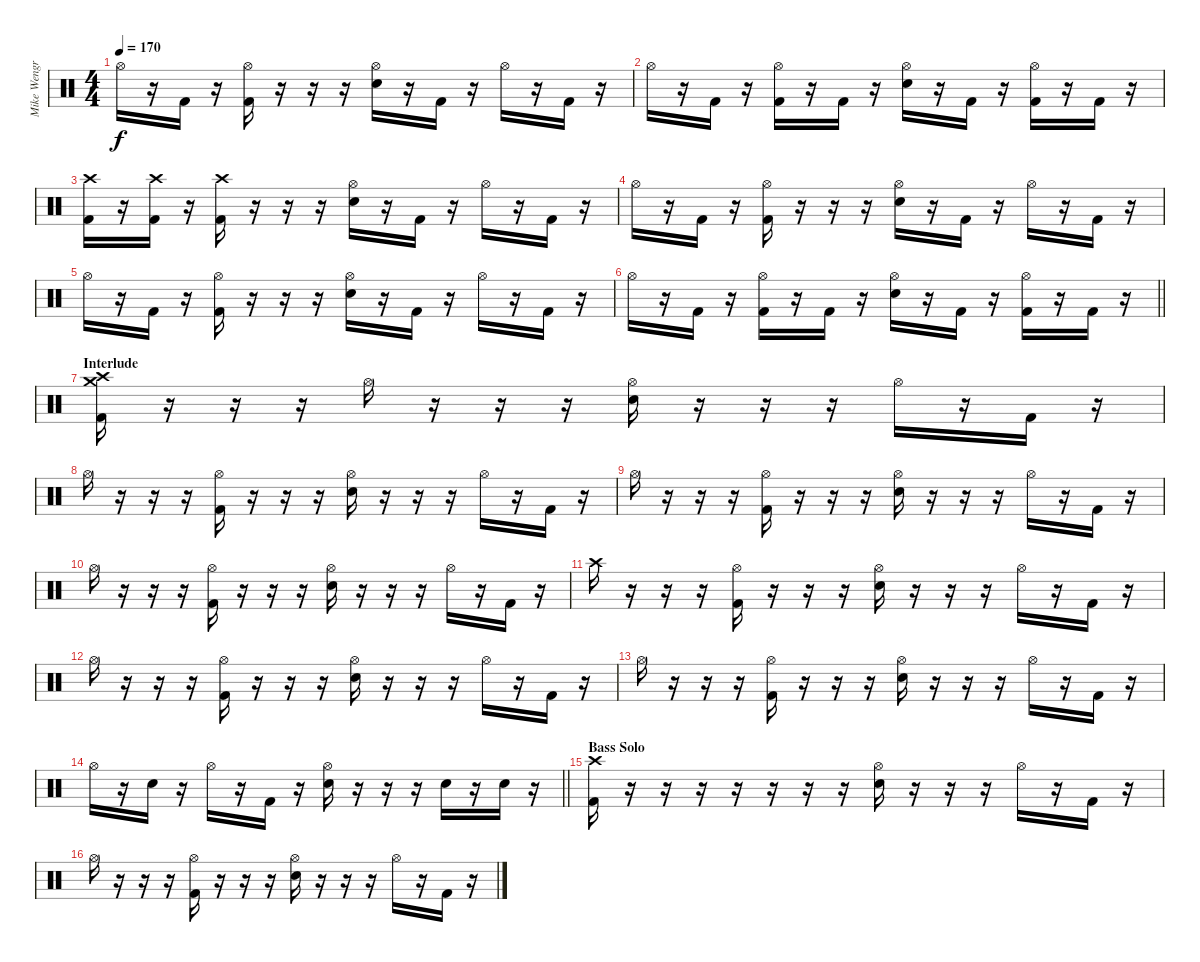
\track ("Mike Wengren" "Mike Wengr") {instrument percussion}
\staff {score}
\articulation defaults
\ts (4 4)
\tempo 170
\clef neutral
\ks c "Hi-Hat (open)".16{dy f}
r.16 "Kick (hit) 2".16 r.16 ("Hi-Hat (open)" "Kick (hit) 2").16 r.16 r.16 r.16 ("Hi-Hat (open)" "Snare (hit) 2").16 r.16 "Kick (hit) 2".16 r.16 "Hi-Hat (open)".16 r.16 "Kick (hit) 2".16 r.16 |
"Hi-Hat (open)".16 r.16 "Kick (hit) 2".16 r.16 ("Hi-Hat (open)" "Kick (hit) 2").16 r.16 "Kick (hit) 2".16 r.16 ("Hi-Hat (open)" "Snare (hit) 2").16 r.16 "Kick (hit) 2".16 r.16 ("Hi-Hat (open)" "Kick (hit) 2").16 r.16 "Kick (hit) 2".16 r.16 |
("Crash high (hit)" "Kick (hit) 2").16 r.16 ("Crash high (hit)" "Kick (hit) 2").16 r.16 ("Crash high (hit)" "Kick (hit) 2").16 r.16 r.16 r.16 ("Hi-Hat (open)" "Snare (hit) 2").16 r.16 "Kick (hit) 2".16 r.16 "Hi-Hat (open)".16 r.16 "Kick (hit) 2".16 r.16 |
"Hi-Hat (open)".16 r.16 "Kick (hit) 2".16 r.16 ("Hi-Hat (open)" "Kick (hit) 2").16 r.16 r.16 r.16 ("Hi-Hat (open)" "Snare (hit) 2").16 r.16 "Kick (hit) 2".16 r.16 "Hi-Hat (open)".16 r.16 "Kick (hit) 2".16 r.16 |
"Hi-Hat (open)".16 r.16 "Kick (hit) 2".16 r.16 ("Hi-Hat (open)" "Kick (hit) 2").16 r.16 r.16 r.16 ("Hi-Hat (open)" "Snare (hit) 2").16 r.16 "Kick (hit) 2".16 r.16 "Hi-Hat (open)".16 r.16 "Kick (hit) 2".16 r.16 |
\barLineRight lightlight "Hi-Hat (open)".16
r.16 "Kick (hit) 2".16 r.16 ("Hi-Hat (open)" "Kick (hit) 2").16 r.16 "Kick (hit) 2".16 r.16 ("Hi-Hat (open)" "Snare (hit) 2").16 r.16 "Kick (hit) 2".16 r.16 ("Hi-Hat (open)" "Kick (hit) 2").16 r.16 "Kick (hit) 2".16 r.16 |
\section ("" "Interlude")
("Crash high (hit)" "Crash medium (hit)" "Kick (hit) 2").16 r.16 r.16 r.16 "Hi-Hat (open)".16 r.16 r.16 r.16 ("Hi-Hat (open)" "Snare (hit) 2").16 r.16 r.16 r.16 "Hi-Hat (open)".16 r.16 "Kick (hit) 2".16 r.16 |
"Hi-Hat (open)".16 r.16 r.16 r.16 ("Hi-Hat (open)" "Kick (hit) 2").16 r.16 r.16 r.16 ("Hi-Hat (open)" "Snare (hit) 2").16 r.16 r.16 r.16 "Hi-Hat (open)".16 r.16 "Kick (hit) 2".16 r.16 |
"Hi-Hat (open)".16 r.16 r.16 r.16 ("Hi-Hat (open)" "Kick (hit) 2").16 r.16 r.16 r.16 ("Hi-Hat (open)" "Snare (hit) 2").16 r.16 r.16 r.16 "Hi-Hat (open)".16 r.16 "Kick (hit) 2".16 r.16 |
"Hi-Hat (open)".16 r.16 r.16 r.16 ("Hi-Hat (open)" "Kick (hit) 2").16 r.16 r.16 r.16 ("Hi-Hat (open)" "Snare (hit) 2").16 r.16 r.16 r.16 "Hi-Hat (open)".16 r.16 "Kick (hit) 2".16 r.16 |
"Crash high (hit)".16 r.16 r.16 r.16 ("Hi-Hat (open)" "Kick (hit) 2").16 r.16 r.16 r.16 ("Hi-Hat (open)" "Snare (hit) 2").16 r.16 r.16 r.16 "Hi-Hat (open)".16 r.16 "Kick (hit) 2".16 r.16 |
"Hi-Hat (open)".16 r.16 r.16 r.16 ("Hi-Hat (open)" "Kick (hit) 2").16 r.16 r.16 r.16 ("Hi-Hat (open)" "Snare (hit) 2").16 r.16 r.16 r.16 "Hi-Hat (open)".16 r.16 "Kick (hit) 2".16 r.16 |
"Hi-Hat (open)".16 r.16 r.16 r.16 ("Hi-Hat (open)" "Kick (hit) 2").16 r.16 r.16 r.16 ("Hi-Hat (open)" "Snare (hit) 2").16 r.16 r.16 r.16 "Hi-Hat (open)".16 r.16 "Kick (hit) 2".16 r.16 |
\barLineRight lightlight "Hi-Hat (open)".16
r.16 "Snare (hit) 2".16 r.16 "Hi-Hat (open)".16 r.16 "Kick (hit) 2".16 r.16 ("Hi-Hat (open)" "Snare (hit) 2").16 r.16 r.16 r.16 "Snare (hit) 2".16 r.16 "Snare (hit) 2".16 r.16 |
\section ("" "Bass Solo")
("Crash high (hit)" "Kick (hit) 2").16 r.16 r.16 r.16 r.16 r.16 r.16 r.16 ("Hi-Hat (open)" "Snare (hit) 2").16 r.16 r.16 r.16 "Hi-Hat (open)".16 r.16 "Kick (hit) 2".16 r.16 |
"Hi-Hat (open)".16 r.16 r.16 r.16 ("Hi-Hat (open)" "Kick (hit) 2").16 r.16 r.16 r.16 ("Hi-Hat (open)" "Snare (hit) 2").16 r.16 r.16 r.16 "Hi-Hat (open)".16 r.16 "Kick (hit) 2".16 r.16
